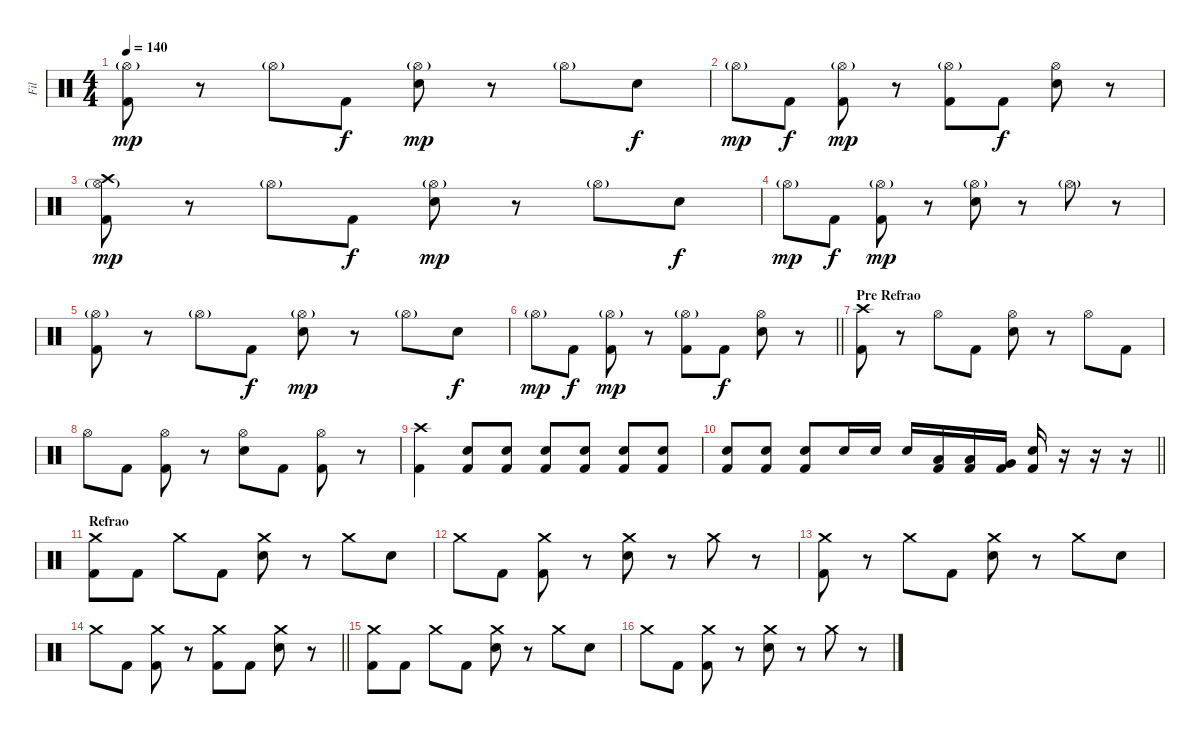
\track ("Fil" "Fil") {instrument percussion}
\staff {score}
\articulation defaults
\ts (4 4)
\tempo 140
\clef neutral
\ks c
("Hi-Hat (open)"{g} "Kick (hit) 2").8{dy mp} r.8 "Hi-Hat (open)"{g}.8 "Kick (hit) 2".8{dy f} ("Hi-Hat (open)"{g} "Electric Snare (hit)").8{dy mp} r.8 "Hi-Hat (open)"{g}.8 "Electric Snare (hit)".8{dy f} |
"Hi-Hat (open)"{g}.8{dy mp} "Kick (hit) 2".8{dy f} ("Hi-Hat (open)"{g} "Kick (hit) 2").8{dy mp} r.8 ("Hi-Hat (open)"{g} "Kick (hit) 2").8 "Kick (hit) 2".8{dy f} ("Hi-Hat (open)" "Electric Snare (hit)").8 r.8 |
("Crash high (hit)" "Hi-Hat (open)"{g} "Kick (hit) 2").8{dy mp} r.8 "Hi-Hat (open)"{g}.8 "Kick (hit) 2".8{dy f} ("Hi-Hat (open)"{g} "Electric Snare (hit)").8{dy mp} r.8 "Hi-Hat (open)"{g}.8 "Electric Snare (hit)".8{dy f} |
"Hi-Hat (open)"{g}.8{dy mp} "Kick (hit) 2".8{dy f} ("Hi-Hat (open)"{g} "Kick (hit) 2").8{dy mp} r.8 ("Hi-Hat (open)"{g} "Electric Snare (hit)").8 r.8 "Hi-Hat (open)"{g}.8 r.8 |
("Hi-Hat (open)"{g} "Kick (hit) 2").8 r.8 "Hi-Hat (open)"{g}.8 "Kick (hit) 2".8{dy f} ("Hi-Hat (open)"{g} "Electric Snare (hit)").8{dy mp} r.8 "Hi-Hat (open)"{g}.8 "Electric Snare (hit)".8{dy f} |
\barLineRight lightlight "Hi-Hat (open)"{g}.8{dy mp} "Kick (hit) 2".8{dy f}
("Hi-Hat (open)"{g} "Kick (hit) 2").8{dy mp} r.8 ("Hi-Hat (open)"{g} "Kick (hit) 2").8 "Kick (hit) 2".8{dy f} ("Hi-Hat (open)" "Electric Snare (hit)").8 r.8 |
\section ("" "Pre Refrao")
("Crash high (hit)" "Kick (hit) 2").8 r.8 "Hi-Hat (open)".8 "Kick (hit) 2".8 ("Hi-Hat (open)" "Electric Snare (hit)").8 r.8 "Hi-Hat (open)".8 "Kick (hit) 2".8 |
"Hi-Hat (open)".8 "Kick (hit) 2".8 ("Hi-Hat (open)" "Kick (hit) 2").8 r.8 ("Hi-Hat (open)" "Electric Snare (hit)").8 "Kick (hit) 2".8 ("Hi-Hat (open)" "Kick (hit) 2").8 r.8 |
("Crash high (hit)" "Kick (hit) 2").4 ("Electric Snare (hit)" "Kick (hit) 2").8 ("Electric Snare (hit)" "Kick (hit) 2").8 ("Electric Snare (hit)" "Kick (hit) 2").8 ("Electric Snare (hit)" "Kick (hit) 2").8 ("Electric Snare (hit)" "Kick (hit) 2").8 ("Electric Snare (hit)" "Kick (hit) 2").8 |
\barLineRight lightlight
("Electric Snare (hit)" "Kick (hit) 2").8 ("Electric Snare (hit)" "Kick (hit) 2").8 ("Electric Snare (hit)" "Kick (hit) 2").8 "Electric Snare (hit)".16 "Electric Snare (hit)".16 "Electric Snare (hit)".16 ("Low Tom (hit)" "Kick (hit) 2").16 ("Low Tom (hit)" "Kick (hit) 2").16 ("Very Low Tom (hit)" "Kick (hit) 2").16 ("Electric Snare (hit)" "Kick (hit) 2").16 r.16 r.16 r.16 |
\section ("" "Refrao")
("Crash medium (hit)" "Kick (hit) 2").8 "Kick (hit) 2".8 "Crash medium (hit)".8 "Kick (hit) 2".8 ("Crash medium (hit)" "Electric Snare (hit)").8 r.8 "Crash medium (hit)".8 "Electric Snare (hit)".8 |
"Crash medium (hit)".8 "Kick (hit) 2".8 ("Crash medium (hit)" "Kick (hit) 2").8 r.8 ("Crash medium (hit)" "Electric Snare (hit)").8 r.8 "Crash medium (hit)".8 r.8 |
("Crash medium (hit)" "Kick (hit) 2").8 r.8 "Crash medium (hit)".8 "Kick (hit) 2".8 ("Crash medium (hit)" "Electric Snare (hit)").8 r.8 "Crash medium (hit)".8 "Electric Snare (hit)".8 |
\barLineRight lightlight "Crash medium (hit)".8 "Kick (hit) 2".8
("Crash medium (hit)" "Kick (hit) 2").8 r.8 ("Crash medium (hit)" "Kick (hit) 2").8 "Kick (hit) 2".8 ("Crash medium (hit)" "Electric Snare (hit)").8 r.8 |
("Crash medium (hit)" "Kick (hit) 2").8 "Kick (hit) 2".8 "Crash medium (hit)".8 "Kick (hit) 2".8 ("Crash medium (hit)" "Electric Snare (hit)").8 r.8 "Crash medium (hit)".8 "Electric Snare (hit)".8 |
"Crash medium (hit)".8 "Kick (hit) 2".8 ("Crash medium (hit)" "Kick (hit) 2").8 r.8 ("Crash medium (hit)" "Electric Snare (hit)").8 r.8 "Crash medium (hit)".8 r.8
